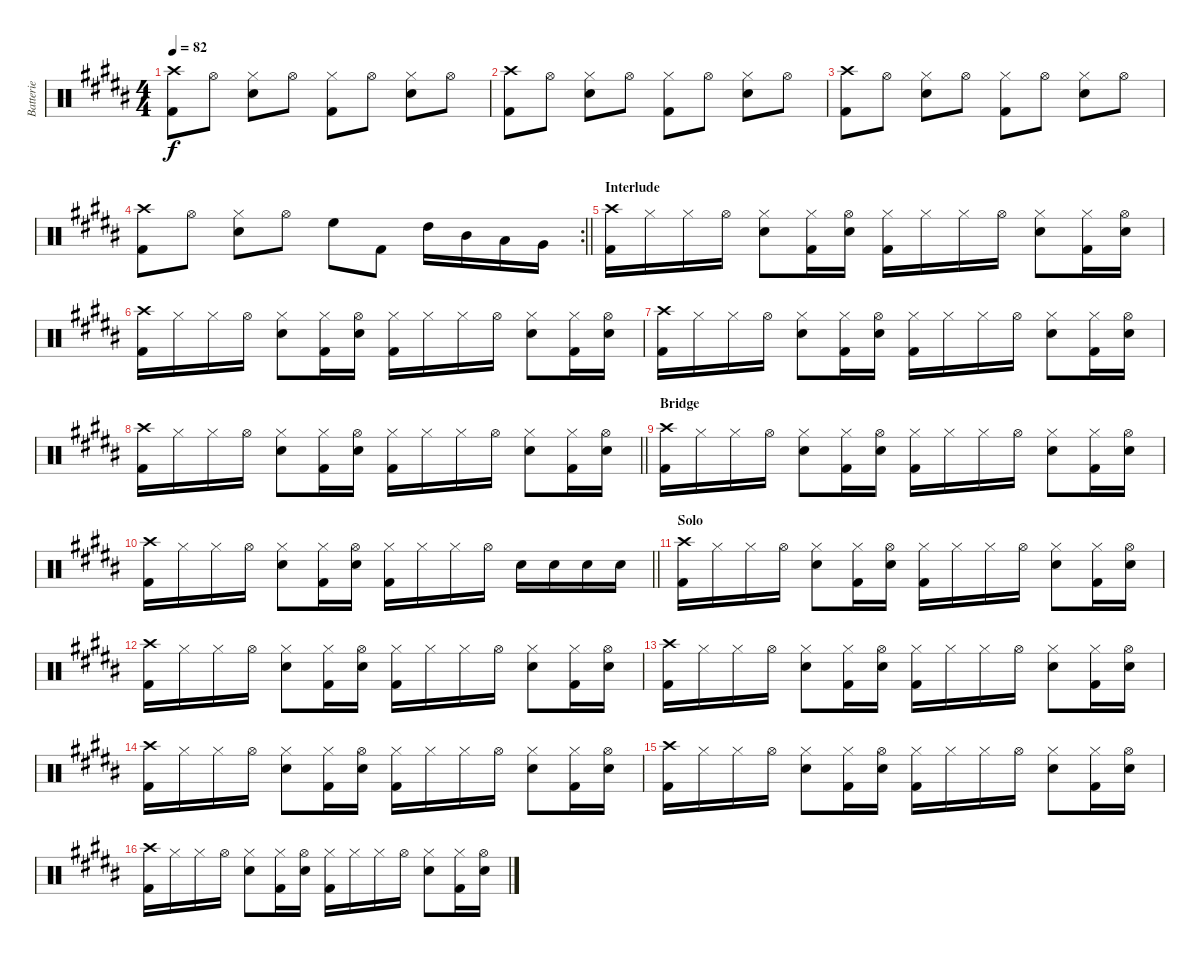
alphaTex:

\track ("Batterie" "Batterie") {instrument percussion}
\staff {score}
\articulation defaults
\ts (4 4)
\tempo 82
\clef neutral
\ks b
("Crash high (hit)" "Kick (hit) 2").8{dy f} "Hi-Hat (open)".8 ("Hi-Hat (closed)" "Snare (hit) 2").8 "Hi-Hat (open)".8 ("Hi-Hat (closed)" "Kick (hit) 2").8 "Hi-Hat (open)".8 ("Hi-Hat (closed)" "Snare (hit) 2").8 "Hi-Hat (open)".8 |
("Crash high (hit)" "Kick (hit) 2").8 "Hi-Hat (open)".8 ("Hi-Hat (closed)" "Snare (hit) 2").8 "Hi-Hat (open)".8 ("Hi-Hat (closed)" "Kick (hit) 2").8 "Hi-Hat (open)".8 ("Hi-Hat (closed)" "Snare (hit) 2").8 "Hi-Hat (open)".8 |
("Crash high (hit)" "Kick (hit) 2").8 "Hi-Hat (open)".8 ("Hi-Hat (closed)" "Snare (hit) 2").8 "Hi-Hat (open)".8 ("Hi-Hat (closed)" "Kick (hit) 2").8 "Hi-Hat (open)".8 ("Hi-Hat (closed)" "Snare (hit) 2").8 "Hi-Hat (open)".8 |
\rc 2
\barLineRight lightlight
("Crash high (hit)" "Kick (hit) 2").8 "Hi-Hat (open)".8 ("Hi-Hat (closed)" "Snare (hit) 2").8 "Hi-Hat (open)".8 "High Floor Tom (hit)".8 "Kick (hit) 2".8 "High Tom (hit)".16 "Mid Tom (hit)".16 "Low Tom (hit)".16 "Very Low Tom (hit)".16 |
\section ("" "Interlude")
("Crash high (hit)" "Kick (hit) 2").16 "Hi-Hat (closed)".16 "Hi-Hat (closed)".16 "Hi-Hat (open)".16 ("Hi-Hat (closed)" "Snare (hit) 2").8 ("Hi-Hat (closed)" "Kick (hit) 2").16 ("Hi-Hat (open)" "Snare (hit) 2").16 ("Hi-Hat (closed)" "Kick (hit) 2").16 "Hi-Hat (closed)".16 "Hi-Hat (closed)".16 "Hi-Hat (open)".16 ("Hi-Hat (closed)" "Snare (hit) 2").8 ("Hi-Hat (closed)" "Kick (hit) 2").16 ("Hi-Hat (open)" "Snare (hit) 2").16 |
("Crash high (hit)" "Kick (hit) 2").16 "Hi-Hat (closed)".16 "Hi-Hat (closed)".16 "Hi-Hat (open)".16 ("Hi-Hat (closed)" "Snare (hit) 2").8 ("Hi-Hat (closed)" "Kick (hit) 2").16 ("Hi-Hat (open)" "Snare (hit) 2").16 ("Hi-Hat (closed)" "Kick (hit) 2").16 "Hi-Hat (closed)".16 "Hi-Hat (closed)".16 "Hi-Hat (open)".16 ("Hi-Hat (closed)" "Snare (hit) 2").8 ("Hi-Hat (closed)" "Kick (hit) 2").16 ("Hi-Hat (open)" "Snare (hit) 2").16 |
("Crash high (hit)" "Kick (hit) 2").16 "Hi-Hat (closed)".16 "Hi-Hat (closed)".16 "Hi-Hat (open)".16 ("Hi-Hat (closed)" "Snare (hit) 2").8 ("Hi-Hat (closed)" "Kick (hit) 2").16 ("Hi-Hat (open)" "Snare (hit) 2").16 ("Hi-Hat (closed)" "Kick (hit) 2").16 "Hi-Hat (closed)".16 "Hi-Hat (closed)".16 "Hi-Hat (open)".16 ("Hi-Hat (closed)" "Snare (hit) 2").8 ("Hi-Hat (closed)" "Kick (hit) 2").16 ("Hi-Hat (open)" "Snare (hit) 2").16 |
\barLineRight lightlight
("Crash high (hit)" "Kick (hit) 2").16 "Hi-Hat (closed)".16 "Hi-Hat (closed)".16 "Hi-Hat (open)".16 ("Hi-Hat (closed)" "Snare (hit) 2").8 ("Hi-Hat (closed)" "Kick (hit) 2").16 ("Hi-Hat (open)" "Snare (hit) 2").16 ("Hi-Hat (closed)" "Kick (hit) 2").16 "Hi-Hat (closed)".16 "Hi-Hat (closed)".16 "Hi-Hat (open)".16 ("Hi-Hat (closed)" "Snare (hit) 2").8 ("Hi-Hat (closed)" "Kick (hit) 2").16 ("Hi-Hat (open)" "Snare (hit) 2").16 |
\section ("" "Bridge")
("Crash high (hit)" "Kick (hit) 2").16 "Hi-Hat (closed)".16 "Hi-Hat (closed)".16 "Hi-Hat (open)".16 ("Hi-Hat (closed)" "Snare (hit) 2").8 ("Hi-Hat (closed)" "Kick (hit) 2").16 ("Hi-Hat (open)" "Snare (hit) 2").16 ("Hi-Hat (closed)" "Kick (hit) 2").16 "Hi-Hat (closed)".16 "Hi-Hat (closed)".16 "Hi-Hat (open)".16 ("Hi-Hat (closed)" "Snare (hit) 2").8 ("Hi-Hat (closed)" "Kick (hit) 2").16 ("Hi-Hat (open)" "Snare (hit) 2").16 |
\barLineRight lightlight
("Crash high (hit)" "Kick (hit) 2").16 "Hi-Hat (closed)".16 "Hi-Hat (closed)".16 "Hi-Hat (open)".16 ("Hi-Hat (closed)" "Snare (hit) 2").8 ("Hi-Hat (closed)" "Kick (hit) 2").16 ("Hi-Hat (open)" "Snare (hit) 2").16 ("Hi-Hat (closed)" "Kick (hit) 2").16 "Hi-Hat (closed)".16 "Hi-Hat (closed)".16 "Hi-Hat (open)".16 "Snare (hit) 2".16 "Snare (hit) 2".16 "Snare (hit) 2".16 "Snare (hit) 2".16 |
\section ("" "Solo")
("Crash high (hit)" "Kick (hit) 2").16 "Hi-Hat (closed)".16 "Hi-Hat (closed)".16 "Hi-Hat (open)".16 ("Hi-Hat (closed)" "Snare (hit) 2").8 ("Hi-Hat (closed)" "Kick (hit) 2").16 ("Hi-Hat (open)" "Snare (hit) 2").16 ("Hi-Hat (closed)" "Kick (hit) 2").16 "Hi-Hat (closed)".16 "Hi-Hat (closed)".16 "Hi-Hat (open)".16 ("Hi-Hat (closed)" "Snare (hit) 2").8 ("Hi-Hat (closed)" "Kick (hit) 2").16 ("Hi-Hat (open)" "Snare (hit) 2").16 |
("Crash high (hit)" "Kick (hit) 2").16 "Hi-Hat (closed)".16 "Hi-Hat (closed)".16 "Hi-Hat (open)".16 ("Hi-Hat (closed)" "Snare (hit) 2").8 ("Hi-Hat (closed)" "Kick (hit) 2").16 ("Hi-Hat (open)" "Snare (hit) 2").16 ("Hi-Hat (closed)" "Kick (hit) 2").16 "Hi-Hat (closed)".16 "Hi-Hat (closed)".16 "Hi-Hat (open)".16 ("Hi-Hat (closed)" "Snare (hit) 2").8 ("Hi-Hat (closed)" "Kick (hit) 2").16 ("Hi-Hat (open)" "Snare (hit) 2").16 |
("Crash high (hit)" "Kick (hit) 2").16 "Hi-Hat (closed)".16 "Hi-Hat (closed)".16 "Hi-Hat (open)".16 ("Hi-Hat (closed)" "Snare (hit) 2").8 ("Hi-Hat (closed)" "Kick (hit) 2").16 ("Hi-Hat (open)" "Snare (hit) 2").16 ("Hi-Hat (closed)" "Kick (hit) 2").16 "Hi-Hat (closed)".16 "Hi-Hat (closed)".16 "Hi-Hat (open)".16 ("Hi-Hat (closed)" "Snare (hit) 2").8 ("Hi-Hat (closed)" "Kick (hit) 2").16 ("Hi-Hat (open)" "Snare (hit) 2").16 |
("Crash high (hit)" "Kick (hit) 2").16 "Hi-Hat (closed)".16 "Hi-Hat (closed)".16 "Hi-Hat (open)".16 ("Hi-Hat (closed)" "Snare (hit) 2").8 ("Hi-Hat (closed)" "Kick (hit) 2").16 ("Hi-Hat (open)" "Snare (hit) 2").16 ("Hi-Hat (closed)" "Kick (hit) 2").16 "Hi-Hat (closed)".16 "Hi-Hat (closed)".16 "Hi-Hat (open)".16 ("Hi-Hat (closed)" "Snare (hit) 2").8 ("Hi-Hat (closed)" "Kick (hit) 2").16 ("Hi-Hat (open)" "Snare (hit) 2").16 |
("Crash high (hit)" "Kick (hit) 2").16 "Hi-Hat (closed)".16 "Hi-Hat (closed)".16 "Hi-Hat (open)".16 ("Hi-Hat (closed)" "Snare (hit) 2").8 ("Hi-Hat (closed)" "Kick (hit) 2").16 ("Hi-Hat (open)" "Snare (hit) 2").16 ("Hi-Hat (closed)" "Kick (hit) 2").16 "Hi-Hat (closed)".16 "Hi-Hat (closed)".16 "Hi-Hat (open)".16 ("Hi-Hat (closed)" "Snare (hit) 2").8 ("Hi-Hat (closed)" "Kick (hit) 2").16 ("Hi-Hat (open)" "Snare (hit) 2").16 |
("Crash high (hit)" "Kick (hit) 2").16 "Hi-Hat (closed)".16 "Hi-Hat (closed)".16 "Hi-Hat (open)".16 ("Hi-Hat (closed)" "Snare (hit) 2").8 ("Hi-Hat (closed)" "Kick (hit) 2").16 ("Hi-Hat (open)" "Snare (hit) 2").16 ("Hi-Hat (closed)" "Kick (hit) 2").16 "Hi-Hat (closed)".16 "Hi-Hat (closed)".16 "Hi-Hat (open)".16 ("Hi-Hat (closed)" "Snare (hit) 2").8 ("Hi-Hat (closed)" "Kick (hit) 2").16 ("Hi-Hat (open)" "Snare (hit) 2").16
